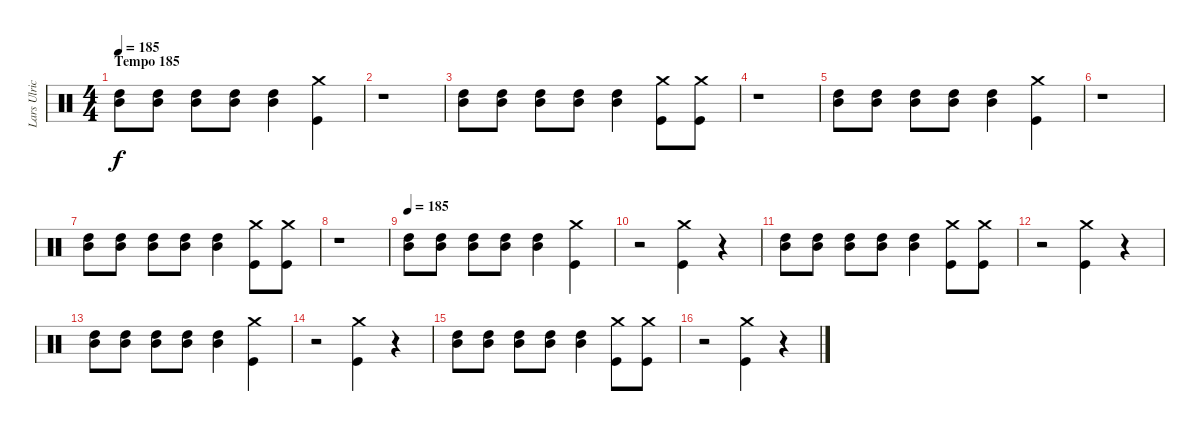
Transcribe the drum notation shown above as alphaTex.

\track ("Lars Ulrich (Drums)" "Lars Ulric") {instrument percussion}
\staff {score}
\articulation defaults
\ts (4 4)
\section ("" "Tempo 185")
\tempo 185
\clef neutral
\ks c
("High Tom (hit)" "Mid Tom (hit)").8{dy f} ("High Tom (hit)" "Mid Tom (hit)").8 ("High Tom (hit)" "Mid Tom (hit)").8 ("High Tom (hit)" "Mid Tom (hit)").8 ("High Tom (hit)" "Mid Tom (hit)").4 ("Crash medium (hit)" "Kick (hit)").4 |
r.1 |
("High Tom (hit)" "Mid Tom (hit)").8 ("High Tom (hit)" "Mid Tom (hit)").8 ("High Tom (hit)" "Mid Tom (hit)").8 ("High Tom (hit)" "Mid Tom (hit)").8 ("High Tom (hit)" "Mid Tom (hit)").4 ("Crash medium (hit)" "Kick (hit)").8 ("Kick (hit)" "Crash medium (hit)").8 |
r.1 |
("High Tom (hit)" "Mid Tom (hit)").8 ("High Tom (hit)" "Mid Tom (hit)").8 ("High Tom (hit)" "Mid Tom (hit)").8 ("High Tom (hit)" "Mid Tom (hit)").8 ("High Tom (hit)" "Mid Tom (hit)").4 ("Crash medium (hit)" "Kick (hit)").4 |
r.1 |
("High Tom (hit)" "Mid Tom (hit)").8 ("High Tom (hit)" "Mid Tom (hit)").8 ("High Tom (hit)" "Mid Tom (hit)").8 ("High Tom (hit)" "Mid Tom (hit)").8 ("High Tom (hit)" "Mid Tom (hit)").4 ("Crash medium (hit)" "Kick (hit)").8 ("Kick (hit)" "Crash medium (hit)").8 |
r.1 |
\tempo 185
("High Tom (hit)" "Mid Tom (hit)").8 ("High Tom (hit)" "Mid Tom (hit)").8 ("High Tom (hit)" "Mid Tom (hit)").8 ("High Tom (hit)" "Mid Tom (hit)").8 ("High Tom (hit)" "Mid Tom (hit)").4 ("Crash medium (hit)" "Kick (hit)").4 |
r.2 ("Kick (hit)" "Crash medium (hit)").4 r.4 |
("High Tom (hit)" "Mid Tom (hit)").8 ("High Tom (hit)" "Mid Tom (hit)").8 ("High Tom (hit)" "Mid Tom (hit)").8 ("High Tom (hit)" "Mid Tom (hit)").8 ("High Tom (hit)" "Mid Tom (hit)").4 ("Crash medium (hit)" "Kick (hit)").8 ("Kick (hit)" "Crash medium (hit)").8 |
r.2 ("Kick (hit)" "Crash medium (hit)").4 r.4 |
("High Tom (hit)" "Mid Tom (hit)").8 ("High Tom (hit)" "Mid Tom (hit)").8 ("High Tom (hit)" "Mid Tom (hit)").8 ("High Tom (hit)" "Mid Tom (hit)").8 ("High Tom (hit)" "Mid Tom (hit)").4 ("Crash medium (hit)" "Kick (hit)").4 |
r.2 ("Kick (hit)" "Crash medium (hit)").4 r.4 |
("High Tom (hit)" "Mid Tom (hit)").8 ("High Tom (hit)" "Mid Tom (hit)").8 ("High Tom (hit)" "Mid Tom (hit)").8 ("High Tom (hit)" "Mid Tom (hit)").8 ("High Tom (hit)" "Mid Tom (hit)").4 ("Crash medium (hit)" "Kick (hit)").8 ("Kick (hit)" "Crash medium (hit)").8 |
r.2 ("Kick (hit)" "Crash medium (hit)").4 r.4
